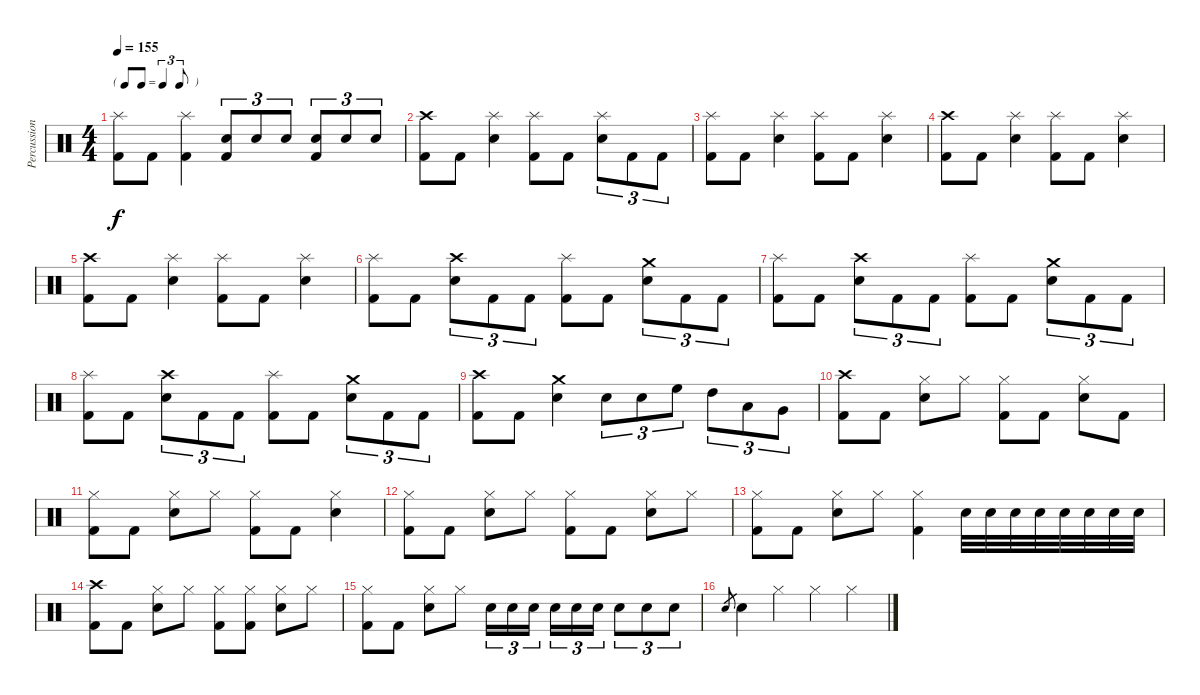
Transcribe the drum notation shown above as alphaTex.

\track ("Percussion" "Percussion") {instrument percussion}
\staff {score}
\articulation defaults
\ts (4 4)
\tf triplet8th
\tempo 155
\clef neutral
\ks c
("Kick (hit) 2" "Splash (hit)").8{dy f} "Kick (hit) 2".8 ("Kick (hit) 2" "Splash (hit)").4 ("Snare (hit) 2" "Kick (hit) 2").8{tu (3 2)} "Snare (hit) 2".8{tu (3 2)} "Snare (hit) 2".8{tu (3 2)} ("Snare (hit) 2" "Kick (hit) 2").8{tu (3 2)} "Snare (hit) 2".8{tu (3 2)} "Snare (hit) 2".8{tu (3 2)} |
("Kick (hit) 2" "Crash high (hit)").8 "Kick (hit) 2".8 ("Snare (hit) 2" "Splash (hit)").4 ("Kick (hit) 2" "Splash (hit)").8 "Kick (hit) 2".8 ("Snare (hit) 2" "Splash (hit)").8{tu (3 2)} "Kick (hit) 2".8{tu (3 2)} "Kick (hit) 2".8{tu (3 2)} |
("Kick (hit) 2" "Splash (hit)").8 "Kick (hit) 2".8 ("Snare (hit) 2" "Splash (hit)").4 ("Kick (hit) 2" "Splash (hit)").8 "Kick (hit) 2".8 ("Snare (hit) 2" "Splash (hit)").4 |
("Kick (hit) 2" "Crash high (hit)").8 "Kick (hit) 2".8 ("Snare (hit) 2" "Splash (hit)").4 ("Kick (hit) 2" "Splash (hit)").8 "Kick (hit) 2".8 ("Snare (hit) 2" "Splash (hit)").4 |
("Kick (hit) 2" "Crash high (hit)").8 "Kick (hit) 2".8 ("Snare (hit) 2" "Splash (hit)").4 ("Kick (hit) 2" "Splash (hit)").8 "Kick (hit) 2".8 ("Snare (hit) 2" "Splash (hit)").4 |
("Kick (hit) 2" "Splash (hit)").8 "Kick (hit) 2".8 ("Snare (hit) 2" "Crash high (hit)").8{tu (3 2)} "Kick (hit) 2".8{tu (3 2)} "Kick (hit) 2".8{tu (3 2)} ("Kick (hit) 2" "Splash (hit)").8 "Kick (hit) 2".8 ("Snare (hit) 2" "Crash medium (hit)").8{tu (3 2)} "Kick (hit) 2".8{tu (3 2)} "Kick (hit) 2".8{tu (3 2)} |
("Kick (hit) 2" "Splash (hit)").8 "Kick (hit) 2".8 ("Snare (hit) 2" "Crash high (hit)").8{tu (3 2)} "Kick (hit) 2".8{tu (3 2)} "Kick (hit) 2".8{tu (3 2)} ("Kick (hit) 2" "Splash (hit)").8 "Kick (hit) 2".8 ("Snare (hit) 2" "Crash medium (hit)").8{tu (3 2)} "Kick (hit) 2".8{tu (3 2)} "Kick (hit) 2".8{tu (3 2)} |
("Kick (hit) 2" "Splash (hit)").8 "Kick (hit) 2".8 ("Snare (hit) 2" "Crash high (hit)").8{tu (3 2)} "Kick (hit) 2".8{tu (3 2)} "Kick (hit) 2".8{tu (3 2)} ("Kick (hit) 2" "Splash (hit)").8 "Kick (hit) 2".8 ("Snare (hit) 2" "Crash medium (hit)").8{tu (3 2)} "Kick (hit) 2".8{tu (3 2)} "Kick (hit) 2".8{tu (3 2)} |
("Kick (hit) 2" "Crash high (hit)").8 "Kick (hit) 2".8 ("Snare (hit) 2" "Crash medium (hit)").4 "Snare (hit) 2".8{tu (3 2)} "Snare (hit) 2".8{tu (3 2)} "High Floor Tom (hit)".8{tu (3 2)} "High Tom (hit)".8{tu (3 2)} "Low Tom (hit)".8{tu (3 2)} "Very Low Tom (hit)".8{tu (3 2)} |
("Kick (hit) 2" "Crash high (hit)").8{volume 12} "Kick (hit) 2".8 ("Snare (hit) 2" "Hi-Hat (closed)").8 "Hi-Hat (closed)".8 ("Kick (hit) 2" "Hi-Hat (closed)").8 "Kick (hit) 2".8 ("Snare (hit) 2" "Hi-Hat (closed)").8 "Kick (hit) 2".8 |
("Kick (hit) 2" "Hi-Hat (closed)").8 "Kick (hit) 2".8 ("Snare (hit) 2" "Hi-Hat (closed)").8 "Hi-Hat (closed)".8 ("Kick (hit) 2" "Hi-Hat (closed)").8 "Kick (hit) 2".8 ("Snare (hit) 2" "Hi-Hat (closed)").4 |
("Kick (hit) 2" "Hi-Hat (closed)").8 "Kick (hit) 2".8 ("Snare (hit) 2" "Hi-Hat (closed)").8 "Hi-Hat (closed)".8 ("Kick (hit) 2" "Hi-Hat (closed)").8 "Kick (hit) 2".8 ("Snare (hit) 2" "Hi-Hat (closed)").8 "Hi-Hat (closed)".8 |
("Kick (hit) 2" "Hi-Hat (closed)").8 "Kick (hit) 2".8 ("Snare (hit) 2" "Hi-Hat (closed)").8 "Hi-Hat (closed)".8 ("Kick (hit) 2" "Hi-Hat (closed)").4 "Snare (hit) 2".32 "Snare (hit) 2".32 "Snare (hit) 2".32 "Snare (hit) 2".32 "Snare (hit) 2".32 "Snare (hit) 2".32 "Snare (hit) 2".32 "Snare (hit) 2".32 |
("Kick (hit) 2" "Crash high (hit)").8 "Kick (hit) 2".8 ("Snare (hit) 2" "Hi-Hat (closed)").8 "Hi-Hat (closed)".8 ("Kick (hit) 2" "Hi-Hat (closed)").8 ("Kick (hit) 2" "Hi-Hat (closed)").8 ("Snare (hit) 2" "Hi-Hat (closed)").8 "Hi-Hat (closed)".8 |
("Kick (hit) 2" "Hi-Hat (closed)").8 "Kick (hit) 2".8 ("Snare (hit) 2" "Hi-Hat (closed)").8 "Hi-Hat (closed)".8 "Snare (hit) 2".16{tu (3 2)} "Snare (hit) 2".16{tu (3 2)} "Snare (hit) 2".16{tu (3 2)} "Snare (hit) 2".16{tu (3 2)} "Snare (hit) 2".16{tu (3 2)} "Snare (hit) 2".16{tu (3 2)} "Snare (hit) 2".8{tu (3 2)} "Snare (hit) 2".8{tu (3 2)} "Snare (hit) 2".8{tu (3 2)} |
"Snare (hit) 2".8{gr} "Snare (hit) 2".4 "Hi-Hat (closed)".4 "Hi-Hat (closed)".4 "Hi-Hat (closed)".4
